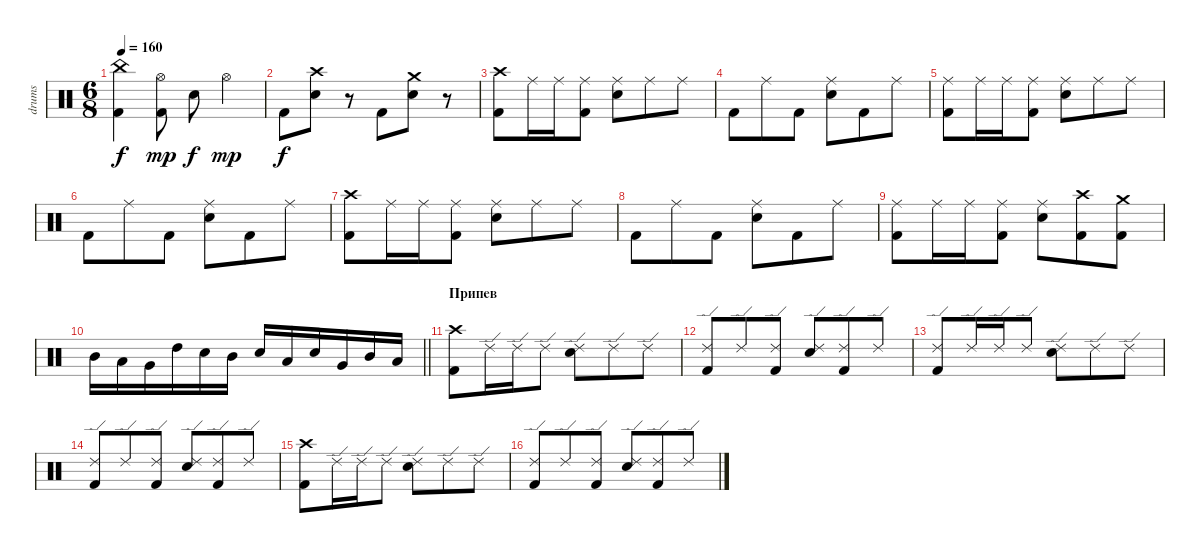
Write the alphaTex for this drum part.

\track ("drums" "drums") {instrument percussion}
\staff {score}
\articulation defaults
\ts (6 8)
\tempo 160
\clef neutral
\ks c
("Kick (hit) 2" "China (hit)").4{dy f} ("Kick (hit) 2" "Hi-Hat (open)").8{dy mp} "Electric Snare (hit)".8{dy f} "Hi-Hat (open)".4{dy mp} |
"Kick (hit) 2".8{dy f} ("Crash high (hit)" "Electric Snare (hit)").8 r.8 "Kick (hit) 2".8 ("Crash medium (hit)" "Electric Snare (hit)").8 r.8 |
("Kick (hit) 2" "Crash high (hit)").8 "Ride (middle)".16 "Ride (middle)".16 ("Kick (hit) 2" "Ride (middle)").8 ("Electric Snare (hit)" "Ride (middle)").8 "Ride (middle)".8 "Ride (middle)".8 |
"Kick (hit) 2".8 "Ride (middle)".8 "Kick (hit) 2".8 ("Electric Snare (hit)" "Ride (middle)").8 "Kick (hit) 2".8 "Ride (middle)".8 |
("Ride (middle)" "Kick (hit) 2").8 "Ride (middle)".16 "Ride (middle)".16 ("Kick (hit) 2" "Ride (middle)").8 ("Electric Snare (hit)" "Ride (middle)").8 "Ride (middle)".8 "Ride (middle)".8 |
"Kick (hit) 2".8 "Ride (middle)".8 "Kick (hit) 2".8 ("Electric Snare (hit)" "Ride (middle)").8 "Kick (hit) 2".8 "Ride (middle)".8 |
("Kick (hit) 2" "Crash high (hit)").8 "Ride (middle)".16 "Ride (middle)".16 ("Kick (hit) 2" "Ride (middle)").8 ("Electric Snare (hit)" "Ride (middle)").8 "Ride (middle)".8 "Ride (middle)".8 |
"Kick (hit) 2".8 "Ride (middle)".8 "Kick (hit) 2".8 ("Electric Snare (hit)" "Ride (middle)").8 "Kick (hit) 2".8 "Ride (middle)".8 |
("Ride (middle)" "Kick (hit) 2").8 "Ride (middle)".16 "Ride (middle)".16 ("Kick (hit) 2" "Ride (middle)").8 ("Electric Snare (hit)" "Ride (middle)").8 ("Kick (hit) 2" "Crash high (hit)").8 ("Kick (hit) 2" "Crash medium (hit)").8 |
\barLineRight lightlight "Mid Tom (hit)".16 "Low Tom (hit)".16 "Very Low Tom (hit)".16 "High Tom (hit)".16 "Electric Snare (hit)".16 "Mid Tom (hit)".16 "Electric Snare (hit)".16 "Low Tom (hit)".16 "Electric Snare (hit)".16 "Very Low Tom (hit)".16 "Mid Tom (hit)".16 "Low Tom (hit)".16
|
\section ("" "Припев")
("Kick (hit) 2" "Crash high (hit)").8 "Ride (edge) 2".16 "Ride (edge) 2".16 "Ride (edge) 2".8 ("Electric Snare (hit)" "Ride (edge) 2").8 "Ride (edge) 2".8 "Ride (edge) 2".8 |
("Kick (hit) 2" "Ride (edge) 2").8 "Ride (edge) 2".8 ("Kick (hit) 2" "Ride (edge) 2").8 ("Electric Snare (hit)" "Ride (edge) 2").8 ("Kick (hit) 2" "Ride (edge) 2").8 "Ride (edge) 2".8 |
("Ride (edge) 2" "Kick (hit) 2").8 "Ride (edge) 2".16 "Ride (edge) 2".16 "Ride (edge) 2".8 ("Electric Snare (hit)" "Ride (edge) 2").8 "Ride (edge) 2".8 "Ride (edge) 2".8 |
("Kick (hit) 2" "Ride (edge) 2").8 "Ride (edge) 2".8 ("Kick (hit) 2" "Ride (edge) 2").8 ("Electric Snare (hit)" "Ride (edge) 2").8 ("Kick (hit) 2" "Ride (edge) 2").8 "Ride (edge) 2".8 |
("Kick (hit) 2" "Crash high (hit)").8 "Ride (edge) 2".16 "Ride (edge) 2".16 "Ride (edge) 2".8 ("Electric Snare (hit)" "Ride (edge) 2").8 "Ride (edge) 2".8 "Ride (edge) 2".8 |
("Kick (hit) 2" "Ride (edge) 2").8 "Ride (edge) 2".8 ("Kick (hit) 2" "Ride (edge) 2").8 ("Electric Snare (hit)" "Ride (edge) 2").8 ("Kick (hit) 2" "Ride (edge) 2").8 "Ride (edge) 2".8
